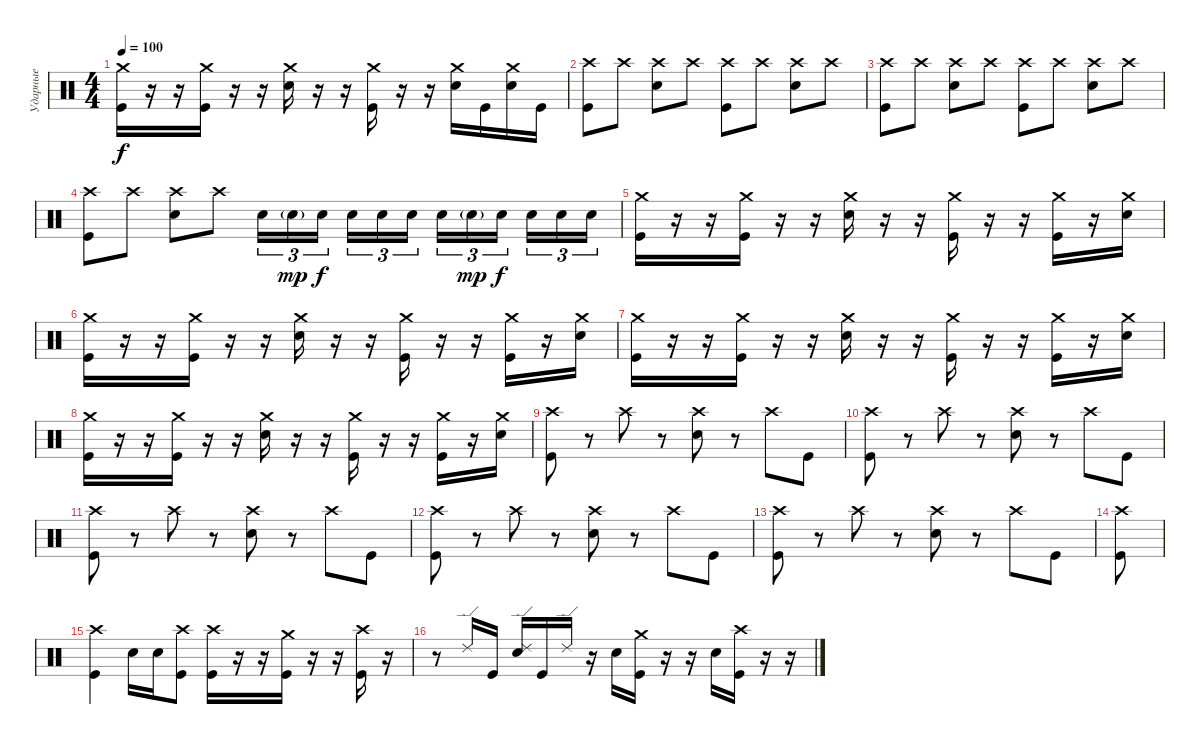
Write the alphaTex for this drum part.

\track ("Ударные" "Ударные") {instrument percussion}
\staff {score}
\articulation defaults
\ts (4 4)
\tempo 100
\clef neutral
\ks c
("Crash medium (hit)" "Kick (hit)").16{dy f} r.16 r.16 ("Crash medium (hit)" "Kick (hit)").16 r.16 r.16 ("Crash medium (hit)" "Electric Snare (hit)").16 r.16 r.16 ("Crash medium (hit)" "Kick (hit)").16 r.16 r.16 ("Crash medium (hit)" "Electric Snare (hit)").16 "Kick (hit)".16 ("Crash medium (hit)" "Electric Snare (hit)").16 "Kick (hit)".16 |
("Crash high (hit)" "Kick (hit)").8 "Crash high (hit)".8 ("Crash high (hit)" "Electric Snare (hit)").8 "Crash high (hit)".8 ("Crash high (hit)" "Kick (hit)").8 "Crash high (hit)".8 ("Crash high (hit)" "Electric Snare (hit)").8 "Crash high (hit)".8 |
("Crash high (hit)" "Kick (hit)").8 "Crash high (hit)".8 ("Crash high (hit)" "Electric Snare (hit)").8 "Crash high (hit)".8 ("Crash high (hit)" "Kick (hit)").8 "Crash high (hit)".8 ("Crash high (hit)" "Electric Snare (hit)").8 "Crash high (hit)".8 |
("Crash high (hit)" "Kick (hit)").8 "Crash high (hit)".8 ("Crash high (hit)" "Electric Snare (hit)").8 "Crash high (hit)".8 "Electric Snare (hit)".16{tu (3 2)} "Electric Snare (hit)"{g}.16{tu (3 2) dy mp} "Electric Snare (hit)".16{tu (3 2) dy f beam splitsecondary} "Electric Snare (hit)".16{tu (3 2)} "Electric Snare (hit)".16{tu (3 2)} "Electric Snare (hit)".16{tu (3 2)} "Electric Snare (hit)".16{tu (3 2)} "Electric Snare (hit)"{g}.16{tu (3 2) dy mp} "Electric Snare (hit)".16{tu (3 2) dy f beam splitsecondary} "Electric Snare (hit)".16{tu (3 2)} "Electric Snare (hit)".16{tu (3 2)} "Electric Snare (hit)".16{tu (3 2)} |
("Crash medium (hit)" "Kick (hit)").16 r.16 r.16 ("Crash medium (hit)" "Kick (hit)").16 r.16 r.16 ("Crash medium (hit)" "Electric Snare (hit)").16 r.16 r.16 ("Crash medium (hit)" "Kick (hit)").16 r.16 r.16 ("Crash medium (hit)" "Kick (hit)").16 r.16 ("Crash medium (hit)" "Electric Snare (hit)").16 |
("Crash medium (hit)" "Kick (hit)").16 r.16 r.16 ("Crash medium (hit)" "Kick (hit)").16 r.16 r.16 ("Crash medium (hit)" "Electric Snare (hit)").16 r.16 r.16 ("Crash medium (hit)" "Kick (hit)").16 r.16 r.16 ("Crash medium (hit)" "Kick (hit)").16 r.16 ("Crash medium (hit)" "Electric Snare (hit)").16 |
("Crash medium (hit)" "Kick (hit)").16 r.16 r.16 ("Crash medium (hit)" "Kick (hit)").16 r.16 r.16 ("Crash medium (hit)" "Electric Snare (hit)").16 r.16 r.16 ("Crash medium (hit)" "Kick (hit)").16 r.16 r.16 ("Crash medium (hit)" "Kick (hit)").16 r.16 ("Crash medium (hit)" "Electric Snare (hit)").16 |
("Crash medium (hit)" "Kick (hit)").16 r.16 r.16 ("Crash medium (hit)" "Kick (hit)").16 r.16 r.16 ("Crash medium (hit)" "Electric Snare (hit)").16 r.16 r.16 ("Crash medium (hit)" "Kick (hit)").16 r.16 r.16 ("Crash medium (hit)" "Kick (hit)").16 r.16 ("Crash medium (hit)" "Electric Snare (hit)").16 |
("Crash high (hit)" "Kick (hit)").8 r.8 "Crash high (hit)".8 r.8 ("Crash high (hit)" "Electric Snare (hit)").8 r.8 "Crash high (hit)".8 "Kick (hit)".8 |
("Crash high (hit)" "Kick (hit)").8 r.8 "Crash high (hit)".8 r.8 ("Crash high (hit)" "Electric Snare (hit)").8 r.8 "Crash high (hit)".8 "Kick (hit)".8 |
("Crash high (hit)" "Kick (hit)").8 r.8 "Crash high (hit)".8 r.8 ("Crash high (hit)" "Electric Snare (hit)").8 r.8 "Crash high (hit)".8 "Kick (hit)".8 |
("Crash high (hit)" "Kick (hit)").8 r.8 "Crash high (hit)".8 r.8 ("Crash high (hit)" "Electric Snare (hit)").8 r.8 "Crash high (hit)".8 "Kick (hit)".8 |
("Crash high (hit)" "Kick (hit)").8 r.8 "Crash high (hit)".8 r.8 ("Crash high (hit)" "Electric Snare (hit)").8 r.8 "Crash high (hit)".8 "Kick (hit)".8 |
("Crash high (hit)" "Kick (hit)").8 |
("Crash high (hit)" "Kick (hit)").4 "Electric Snare (hit)".16 "Electric Snare (hit)".16 ("Crash high (hit)" "Kick (hit)").8 ("Crash high (hit)" "Kick (hit)").16 r.16 r.16 ("Crash medium (hit)" "Kick (hit)").16 r.16 r.16 ("Crash high (hit)" "Kick (hit)").16 r.16 |
r.8 "Ride (edge) 2".16 "Kick (hit)".16 ("Ride (edge) 2" "Electric Snare (hit)").16 "Kick (hit)".16 "Ride (edge) 2".16 r.16 "Electric Snare (hit)".16 ("Crash medium (hit)" "Kick (hit)").16 r.16 r.16 "Electric Snare (hit)".16 ("Crash high (hit)" "Kick (hit)").16 r.16 r.16
